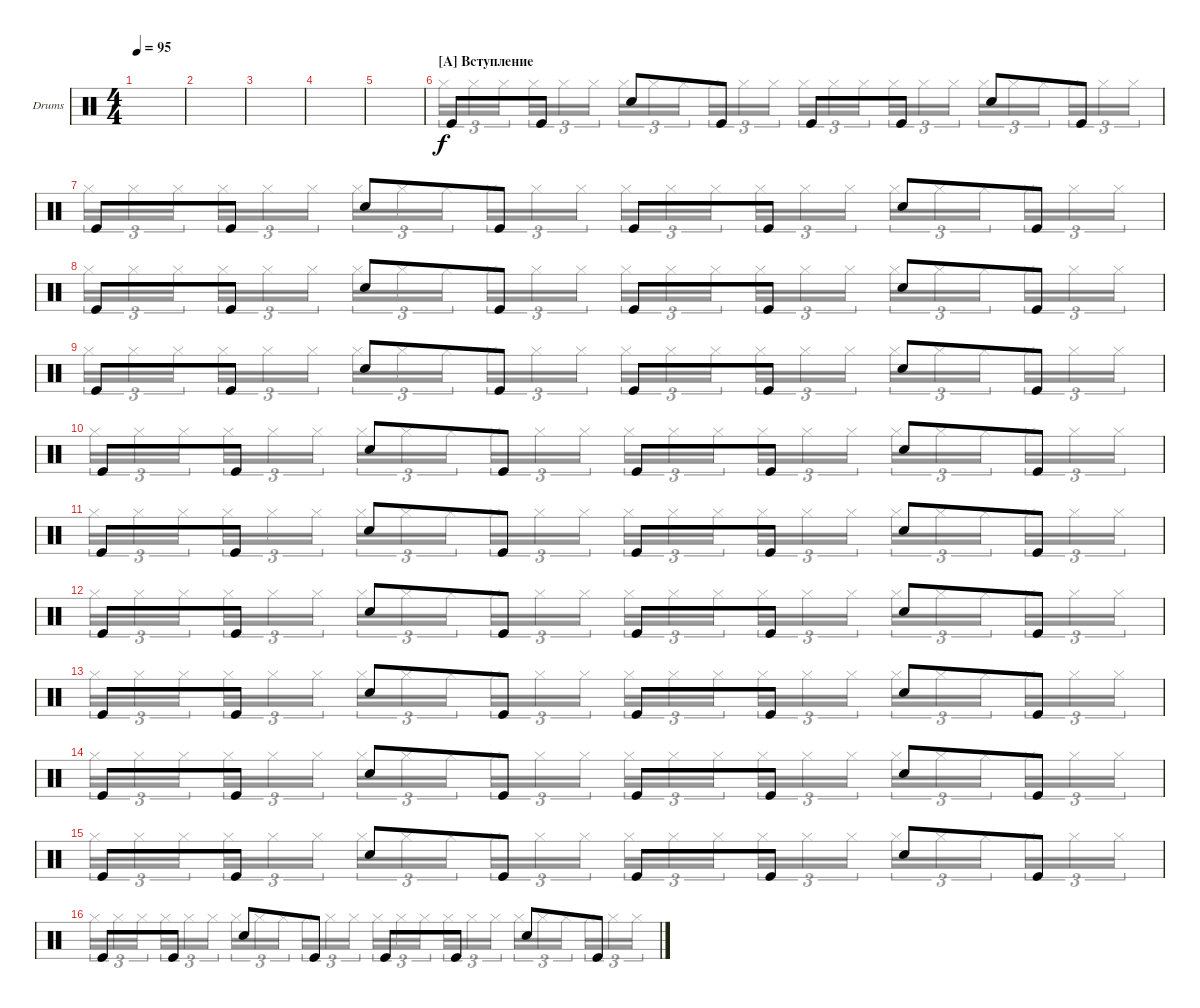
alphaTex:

\defaultSystemsLayout 4
\bracketExtendMode groupsimilarinstruments
\firstSystemTrackNameOrientation horizontal
\otherSystemsTrackNameOrientation horizontal
\track ("Drumkit" "Drums") {instrument percussion}
\staff {score}
\articulation defaults
\voice
\ts (4 4)
\tempo 95
\clef neutral
\scale
0.472222
\ks c
|
\scale
0.263889 |
\scale
0.263889 |
\scale
0.333333 |
\scale
0.333333 |
\section ("A" "Вступление")
\scale
0.333333 "Kick (hit)".8 "Kick (hit)".8 "Snare (hit) 2".8 "Kick (hit)".8 "Kick (hit)".8 "Kick (hit)".8 "Snare (hit) 2".8 "Kick (hit)".8 |
\scale
0.333333 "Kick (hit)".8 "Kick (hit)".8 "Snare (hit) 2".8 "Kick (hit)".8 "Kick (hit)".8 "Kick (hit)".8 "Snare (hit) 2".8 "Kick (hit)".8 |
\scale
0.333333 "Kick (hit)".8 "Kick (hit)".8 "Snare (hit) 2".8 "Kick (hit)".8 "Kick (hit)".8 "Kick (hit)".8 "Snare (hit) 2".8 "Kick (hit)".8 |
\scale
0.333333 "Kick (hit)".8 "Kick (hit)".8 "Snare (hit) 2".8 "Kick (hit)".8 "Kick (hit)".8 "Kick (hit)".8 "Snare (hit) 2".8 "Kick (hit)".8 |
\scale
0.333333 "Kick (hit)".8 "Kick (hit)".8 "Snare (hit) 2".8 "Kick (hit)".8 "Kick (hit)".8 "Kick (hit)".8 "Snare (hit) 2".8 "Kick (hit)".8 |
\scale
0.333333 "Kick (hit)".8 "Kick (hit)".8 "Snare (hit) 2".8 "Kick (hit)".8 "Kick (hit)".8 "Kick (hit)".8 "Snare (hit) 2".8 "Kick (hit)".8 |
\scale
0.333333 "Kick (hit)".8 "Kick (hit)".8 "Snare (hit) 2".8 "Kick (hit)".8 "Kick (hit)".8 "Kick (hit)".8 "Snare (hit) 2".8 "Kick (hit)".8 |
"Kick (hit)".8 "Kick (hit)".8 "Snare (hit) 2".8 "Kick (hit)".8 "Kick (hit)".8 "Kick (hit)".8 "Snare (hit) 2".8 "Kick (hit)".8 |
"Kick (hit)".8 "Kick (hit)".8 "Snare (hit) 2".8 "Kick (hit)".8 "Kick (hit)".8 "Kick (hit)".8 "Snare (hit) 2".8 "Kick (hit)".8 |
"Kick (hit)".8 "Kick (hit)".8 "Snare (hit) 2".8 "Kick (hit)".8 "Kick (hit)".8 "Kick (hit)".8 "Snare (hit) 2".8 "Kick (hit)".8 |
"Kick (hit)".8 "Kick (hit)".8 "Snare (hit) 2".8 "Kick (hit)".8 "Kick (hit)".8 "Kick (hit)".8 "Snare (hit) 2".8 "Kick (hit)".8
\voice
\clef neutral
\ottava regular
\simile none
\scale
0.472222
\ks c
|
\scale
0.263889 |
\scale
0.263889 |
\scale
0.333333 |
\scale
0.333333 |
\scale
0.333333 "Hi-Hat (closed)".16{tu (3 2)} "Hi-Hat (closed)".16{tu (3 2)} "Hi-Hat (closed)".16{tu (3 2)} "Hi-Hat (closed)".16{tu (3 2)} "Hi-Hat (closed)".16{tu (3 2)} "Hi-Hat (closed)".16{tu (3 2)} "Hi-Hat (closed)".16{tu (3 2)} "Hi-Hat (closed)".16{tu (3 2)} "Hi-Hat (closed)".16{tu (3 2)} "Hi-Hat (closed)".16{tu (3 2)} "Hi-Hat (closed)".16{tu (3 2)} "Hi-Hat (closed)".16{tu (3 2)} "Hi-Hat (closed)".16{tu (3 2)} "Hi-Hat (closed)".16{tu (3 2)} "Hi-Hat (closed)".16{tu (3 2)} "Hi-Hat (closed)".16{tu (3 2)} "Hi-Hat (closed)".16{tu (3 2)} "Hi-Hat (closed)".16{tu (3 2)} "Hi-Hat (closed)".16{tu (3 2)} "Hi-Hat (closed)".16{tu (3 2)} "Hi-Hat (closed)".16{tu (3 2)} "Hi-Hat (closed)".16{tu (3 2)} "Hi-Hat (closed)".16{tu (3 2)} "Hi-Hat (closed)".16{tu (3 2)} |
\scale
0.333333 "Hi-Hat (closed)".16{tu (3 2)} "Hi-Hat (closed)".16{tu (3 2)} "Hi-Hat (closed)".16{tu (3 2)} "Hi-Hat (closed)".16{tu (3 2)} "Hi-Hat (closed)".16{tu (3 2)} "Hi-Hat (closed)".16{tu (3 2)} "Hi-Hat (closed)".16{tu (3 2)} "Hi-Hat (closed)".16{tu (3 2)} "Hi-Hat (closed)".16{tu (3 2)} "Hi-Hat (closed)".16{tu (3 2)} "Hi-Hat (closed)".16{tu (3 2)} "Hi-Hat (closed)".16{tu (3 2)} "Hi-Hat (closed)".16{tu (3 2)} "Hi-Hat (closed)".16{tu (3 2)} "Hi-Hat (closed)".16{tu (3 2)} "Hi-Hat (closed)".16{tu (3 2)} "Hi-Hat (closed)".16{tu (3 2)} "Hi-Hat (closed)".16{tu (3 2)} "Hi-Hat (closed)".16{tu (3 2)} "Hi-Hat (closed)".16{tu (3 2)} "Hi-Hat (closed)".16{tu (3 2)} "Hi-Hat (closed)".16{tu (3 2)} "Hi-Hat (closed)".16{tu (3 2)} "Hi-Hat (closed)".16{tu (3 2)} |
\scale
0.333333 "Hi-Hat (closed)".16{tu (3 2)} "Hi-Hat (closed)".16{tu (3 2)} "Hi-Hat (closed)".16{tu (3 2)} "Hi-Hat (closed)".16{tu (3 2)} "Hi-Hat (closed)".16{tu (3 2)} "Hi-Hat (closed)".16{tu (3 2)} "Hi-Hat (closed)".16{tu (3 2)} "Hi-Hat (closed)".16{tu (3 2)} "Hi-Hat (closed)".16{tu (3 2)} "Hi-Hat (closed)".16{tu (3 2)} "Hi-Hat (closed)".16{tu (3 2)} "Hi-Hat (closed)".16{tu (3 2)} "Hi-Hat (closed)".16{tu (3 2)} "Hi-Hat (closed)".16{tu (3 2)} "Hi-Hat (closed)".16{tu (3 2)} "Hi-Hat (closed)".16{tu (3 2)} "Hi-Hat (closed)".16{tu (3 2)} "Hi-Hat (closed)".16{tu (3 2)} "Hi-Hat (closed)".16{tu (3 2)} "Hi-Hat (closed)".16{tu (3 2)} "Hi-Hat (closed)".16{tu (3 2)} "Hi-Hat (closed)".16{tu (3 2)} "Hi-Hat (closed)".16{tu (3 2)} "Hi-Hat (closed)".16{tu (3 2)} |
\scale
0.333333 "Hi-Hat (closed)".16{tu (3 2)} "Hi-Hat (closed)".16{tu (3 2)} "Hi-Hat (closed)".16{tu (3 2)} "Hi-Hat (closed)".16{tu (3 2)} "Hi-Hat (closed)".16{tu (3 2)} "Hi-Hat (closed)".16{tu (3 2)} "Hi-Hat (closed)".16{tu (3 2)} "Hi-Hat (closed)".16{tu (3 2)} "Hi-Hat (closed)".16{tu (3 2)} "Hi-Hat (closed)".16{tu (3 2)} "Hi-Hat (closed)".16{tu (3 2)} "Hi-Hat (closed)".16{tu (3 2)} "Hi-Hat (closed)".16{tu (3 2)} "Hi-Hat (closed)".16{tu (3 2)} "Hi-Hat (closed)".16{tu (3 2)} "Hi-Hat (closed)".16{tu (3 2)} "Hi-Hat (closed)".16{tu (3 2)} "Hi-Hat (closed)".16{tu (3 2)} "Hi-Hat (closed)".16{tu (3 2)} "Hi-Hat (closed)".16{tu (3 2)} "Hi-Hat (closed)".16{tu (3 2)} "Hi-Hat (closed)".16{tu (3 2)} "Hi-Hat (closed)".16{tu (3 2)} "Hi-Hat (closed)".16{tu (3 2)} |
\scale
0.333333 "Hi-Hat (closed)".16{tu (3 2)} "Hi-Hat (closed)".16{tu (3 2)} "Hi-Hat (closed)".16{tu (3 2)} "Hi-Hat (closed)".16{tu (3 2)} "Hi-Hat (closed)".16{tu (3 2)} "Hi-Hat (closed)".16{tu (3 2)} "Hi-Hat (closed)".16{tu (3 2)} "Hi-Hat (closed)".16{tu (3 2)} "Hi-Hat (closed)".16{tu (3 2)} "Hi-Hat (closed)".16{tu (3 2)} "Hi-Hat (closed)".16{tu (3 2)} "Hi-Hat (closed)".16{tu (3 2)} "Hi-Hat (closed)".16{tu (3 2)} "Hi-Hat (closed)".16{tu (3 2)} "Hi-Hat (closed)".16{tu (3 2)} "Hi-Hat (closed)".16{tu (3 2)} "Hi-Hat (closed)".16{tu (3 2)} "Hi-Hat (closed)".16{tu (3 2)} "Hi-Hat (closed)".16{tu (3 2)} "Hi-Hat (closed)".16{tu (3 2)} "Hi-Hat (closed)".16{tu (3 2)} "Hi-Hat (closed)".16{tu (3 2)} "Hi-Hat (closed)".16{tu (3 2)} "Hi-Hat (closed)".16{tu (3 2)} |
\scale
0.333333 "Hi-Hat (closed)".16{tu (3 2)} "Hi-Hat (closed)".16{tu (3 2)} "Hi-Hat (closed)".16{tu (3 2)} "Hi-Hat (closed)".16{tu (3 2)} "Hi-Hat (closed)".16{tu (3 2)} "Hi-Hat (closed)".16{tu (3 2)} "Hi-Hat (closed)".16{tu (3 2)} "Hi-Hat (closed)".16{tu (3 2)} "Hi-Hat (closed)".16{tu (3 2)} "Hi-Hat (closed)".16{tu (3 2)} "Hi-Hat (closed)".16{tu (3 2)} "Hi-Hat (closed)".16{tu (3 2)} "Hi-Hat (closed)".16{tu (3 2)} "Hi-Hat (closed)".16{tu (3 2)} "Hi-Hat (closed)".16{tu (3 2)} "Hi-Hat (closed)".16{tu (3 2)} "Hi-Hat (closed)".16{tu (3 2)} "Hi-Hat (closed)".16{tu (3 2)} "Hi-Hat (closed)".16{tu (3 2)} "Hi-Hat (closed)".16{tu (3 2)} "Hi-Hat (closed)".16{tu (3 2)} "Hi-Hat (closed)".16{tu (3 2)} "Hi-Hat (closed)".16{tu (3 2)} "Hi-Hat (closed)".16{tu (3 2)} |
\scale
0.333333 "Hi-Hat (closed)".16{tu (3 2)} "Hi-Hat (closed)".16{tu (3 2)} "Hi-Hat (closed)".16{tu (3 2)} "Hi-Hat (closed)".16{tu (3 2)} "Hi-Hat (closed)".16{tu (3 2)} "Hi-Hat (closed)".16{tu (3 2)} "Hi-Hat (closed)".16{tu (3 2)} "Hi-Hat (closed)".16{tu (3 2)} "Hi-Hat (closed)".16{tu (3 2)} "Hi-Hat (closed)".16{tu (3 2)} "Hi-Hat (closed)".16{tu (3 2)} "Hi-Hat (closed)".16{tu (3 2)} "Hi-Hat (closed)".16{tu (3 2)} "Hi-Hat (closed)".16{tu (3 2)} "Hi-Hat (closed)".16{tu (3 2)} "Hi-Hat (closed)".16{tu (3 2)} "Hi-Hat (closed)".16{tu (3 2)} "Hi-Hat (closed)".16{tu (3 2)} "Hi-Hat (closed)".16{tu (3 2)} "Hi-Hat (closed)".16{tu (3 2)} "Hi-Hat (closed)".16{tu (3 2)} "Hi-Hat (closed)".16{tu (3 2)} "Hi-Hat (closed)".16{tu (3 2)} "Hi-Hat (closed)".16{tu (3 2)} |
"Hi-Hat (closed)".16{tu (3 2)} "Hi-Hat (closed)".16{tu (3 2)} "Hi-Hat (closed)".16{tu (3 2)} "Hi-Hat (closed)".16{tu (3 2)} "Hi-Hat (closed)".16{tu (3 2)} "Hi-Hat (closed)".16{tu (3 2)} "Hi-Hat (closed)".16{tu (3 2)} "Hi-Hat (closed)".16{tu (3 2)} "Hi-Hat (closed)".16{tu (3 2)} "Hi-Hat (closed)".16{tu (3 2)} "Hi-Hat (closed)".16{tu (3 2)} "Hi-Hat (closed)".16{tu (3 2)} "Hi-Hat (closed)".16{tu (3 2)} "Hi-Hat (closed)".16{tu (3 2)} "Hi-Hat (closed)".16{tu (3 2)} "Hi-Hat (closed)".16{tu (3 2)} "Hi-Hat (closed)".16{tu (3 2)} "Hi-Hat (closed)".16{tu (3 2)} "Hi-Hat (closed)".16{tu (3 2)} "Hi-Hat (closed)".16{tu (3 2)} "Hi-Hat (closed)".16{tu (3 2)} "Hi-Hat (closed)".16{tu (3 2)} "Hi-Hat (closed)".16{tu (3 2)} "Hi-Hat (closed)".16{tu (3 2)} |
"Hi-Hat (closed)".16{tu (3 2)} "Hi-Hat (closed)".16{tu (3 2)} "Hi-Hat (closed)".16{tu (3 2)} "Hi-Hat (closed)".16{tu (3 2)} "Hi-Hat (closed)".16{tu (3 2)} "Hi-Hat (closed)".16{tu (3 2)} "Hi-Hat (closed)".16{tu (3 2)} "Hi-Hat (closed)".16{tu (3 2)} "Hi-Hat (closed)".16{tu (3 2)} "Hi-Hat (closed)".16{tu (3 2)} "Hi-Hat (closed)".16{tu (3 2)} "Hi-Hat (closed)".16{tu (3 2)} "Hi-Hat (closed)".16{tu (3 2)} "Hi-Hat (closed)".16{tu (3 2)} "Hi-Hat (closed)".16{tu (3 2)} "Hi-Hat (closed)".16{tu (3 2)} "Hi-Hat (closed)".16{tu (3 2)} "Hi-Hat (closed)".16{tu (3 2)} "Hi-Hat (closed)".16{tu (3 2)} "Hi-Hat (closed)".16{tu (3 2)} "Hi-Hat (closed)".16{tu (3 2)} "Hi-Hat (closed)".16{tu (3 2)} "Hi-Hat (closed)".16{tu (3 2)} "Hi-Hat (closed)".16{tu (3 2)} |
"Hi-Hat (closed)".16{tu (3 2)} "Hi-Hat (closed)".16{tu (3 2)} "Hi-Hat (closed)".16{tu (3 2)} "Hi-Hat (closed)".16{tu (3 2)} "Hi-Hat (closed)".16{tu (3 2)} "Hi-Hat (closed)".16{tu (3 2)} "Hi-Hat (closed)".16{tu (3 2)} "Hi-Hat (closed)".16{tu (3 2)} "Hi-Hat (closed)".16{tu (3 2)} "Hi-Hat (closed)".16{tu (3 2)} "Hi-Hat (closed)".16{tu (3 2)} "Hi-Hat (closed)".16{tu (3 2)} "Hi-Hat (closed)".16{tu (3 2)} "Hi-Hat (closed)".16{tu (3 2)} "Hi-Hat (closed)".16{tu (3 2)} "Hi-Hat (closed)".16{tu (3 2)} "Hi-Hat (closed)".16{tu (3 2)} "Hi-Hat (closed)".16{tu (3 2)} "Hi-Hat (closed)".16{tu (3 2)} "Hi-Hat (closed)".16{tu (3 2)} "Hi-Hat (closed)".16{tu (3 2)} "Hi-Hat (closed)".16{tu (3 2)} "Hi-Hat (closed)".16{tu (3 2)} "Hi-Hat (closed)".16{tu (3 2)} |
"Hi-Hat (closed)".16{tu (3 2)} "Hi-Hat (closed)".16{tu (3 2)} "Hi-Hat (closed)".16{tu (3 2)} "Hi-Hat (closed)".16{tu (3 2)} "Hi-Hat (closed)".16{tu (3 2)} "Hi-Hat (closed)".16{tu (3 2)} "Hi-Hat (closed)".16{tu (3 2)} "Hi-Hat (closed)".16{tu (3 2)} "Hi-Hat (closed)".16{tu (3 2)} "Hi-Hat (closed)".16{tu (3 2)} "Hi-Hat (closed)".16{tu (3 2)} "Hi-Hat (closed)".16{tu (3 2)} "Hi-Hat (closed)".16{tu (3 2)} "Hi-Hat (closed)".16{tu (3 2)} "Hi-Hat (closed)".16{tu (3 2)} "Hi-Hat (closed)".16{tu (3 2)} "Hi-Hat (closed)".16{tu (3 2)} "Hi-Hat (closed)".16{tu (3 2)} "Hi-Hat (closed)".16{tu (3 2)} "Hi-Hat (closed)".16{tu (3 2)} "Hi-Hat (closed)".16{tu (3 2)} "Hi-Hat (closed)".16{tu (3 2)} "Hi-Hat (closed)".16{tu (3 2)} "Hi-Hat (closed)".16{tu (3 2)}
